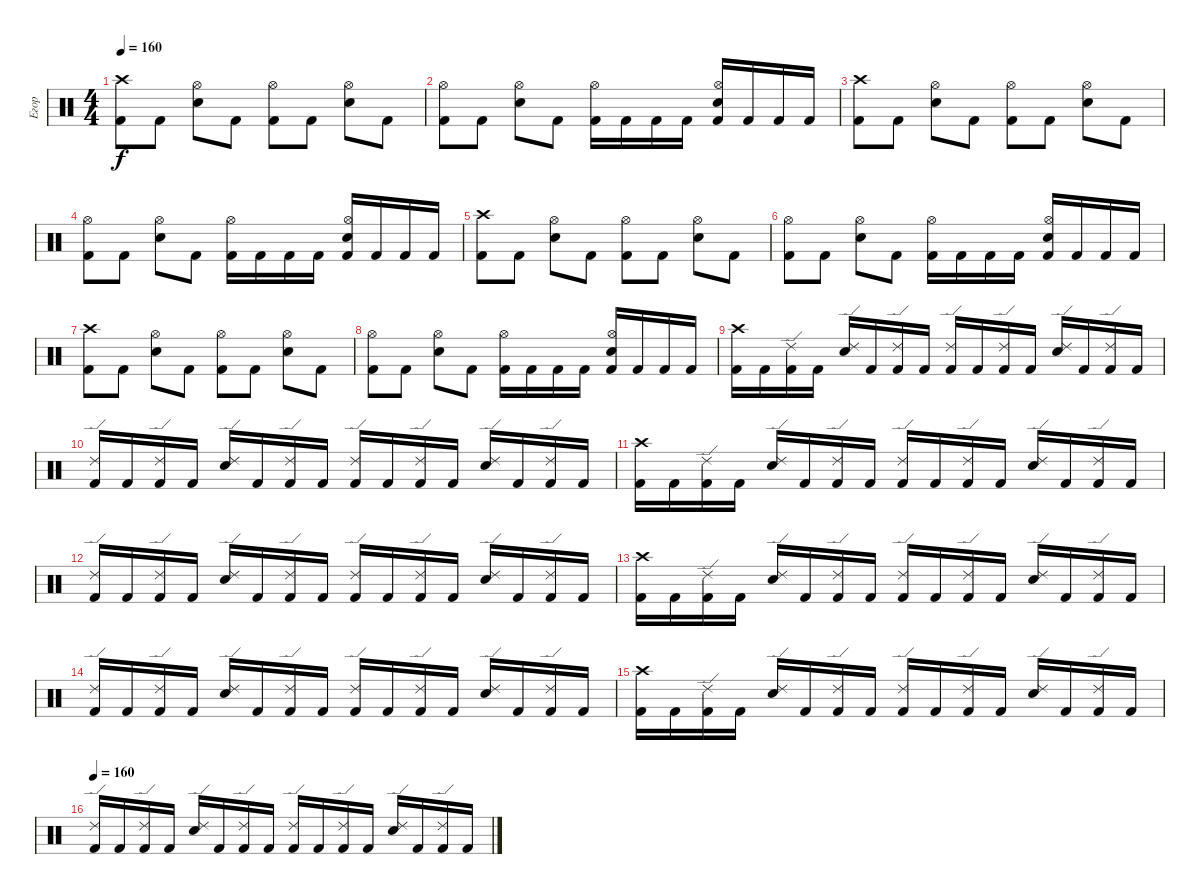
\track ("Егор" "Егор") {instrument percussion}
\staff {score}
\articulation defaults
\ts (4 4)
\tempo 160
\clef neutral
\ks c
("Crash high (hit)" "Kick (hit) 2").8{dy f} "Kick (hit) 2".8 ("Hi-Hat (open)" "Snare (hit) 2").8 "Kick (hit) 2".8 ("Hi-Hat (open)" "Kick (hit) 2").8 "Kick (hit) 2".8 ("Hi-Hat (open)" "Snare (hit) 2").8 "Kick (hit) 2".8 |
("Hi-Hat (open)" "Kick (hit) 2").8 "Kick (hit) 2".8 ("Hi-Hat (open)" "Snare (hit) 2").8 "Kick (hit) 2".8 ("Hi-Hat (open)" "Kick (hit) 2").16 "Kick (hit) 2".16 "Kick (hit) 2".16 "Kick (hit) 2".16 ("Hi-Hat (open)" "Snare (hit) 2" "Kick (hit) 2").16 "Kick (hit) 2".16 "Kick (hit) 2".16 "Kick (hit) 2".16 |
("Crash high (hit)" "Kick (hit) 2").8 "Kick (hit) 2".8 ("Hi-Hat (open)" "Snare (hit) 2").8 "Kick (hit) 2".8 ("Hi-Hat (open)" "Kick (hit) 2").8 "Kick (hit) 2".8 ("Hi-Hat (open)" "Snare (hit) 2").8 "Kick (hit) 2".8 |
("Hi-Hat (open)" "Kick (hit) 2").8 "Kick (hit) 2".8 ("Hi-Hat (open)" "Snare (hit) 2").8 "Kick (hit) 2".8 ("Hi-Hat (open)" "Kick (hit) 2").16 "Kick (hit) 2".16 "Kick (hit) 2".16 "Kick (hit) 2".16 ("Hi-Hat (open)" "Snare (hit) 2" "Kick (hit) 2").16 "Kick (hit) 2".16 "Kick (hit) 2".16 "Kick (hit) 2".16 |
("Crash high (hit)" "Kick (hit) 2").8 "Kick (hit) 2".8 ("Hi-Hat (open)" "Snare (hit) 2").8 "Kick (hit) 2".8 ("Hi-Hat (open)" "Kick (hit) 2").8 "Kick (hit) 2".8 ("Hi-Hat (open)" "Snare (hit) 2").8 "Kick (hit) 2".8 |
("Hi-Hat (open)" "Kick (hit) 2").8 "Kick (hit) 2".8 ("Hi-Hat (open)" "Snare (hit) 2").8 "Kick (hit) 2".8 ("Hi-Hat (open)" "Kick (hit) 2").16 "Kick (hit) 2".16 "Kick (hit) 2".16 "Kick (hit) 2".16 ("Hi-Hat (open)" "Snare (hit) 2" "Kick (hit) 2").16 "Kick (hit) 2".16 "Kick (hit) 2".16 "Kick (hit) 2".16 |
("Crash high (hit)" "Kick (hit) 2").8 "Kick (hit) 2".8 ("Hi-Hat (open)" "Snare (hit) 2").8 "Kick (hit) 2".8 ("Hi-Hat (open)" "Kick (hit) 2").8 "Kick (hit) 2".8 ("Hi-Hat (open)" "Snare (hit) 2").8 "Kick (hit) 2".8 |
("Hi-Hat (open)" "Kick (hit) 2").8 "Kick (hit) 2".8 ("Hi-Hat (open)" "Snare (hit) 2").8 "Kick (hit) 2".8 ("Hi-Hat (open)" "Kick (hit) 2").16 "Kick (hit) 2".16 "Kick (hit) 2".16 "Kick (hit) 2".16 ("Hi-Hat (open)" "Snare (hit) 2" "Kick (hit) 2").16 "Kick (hit) 2".16 "Kick (hit) 2".16 "Kick (hit) 2".16 |
("Crash high (hit)" "Kick (hit) 2").16 "Kick (hit) 2".16 ("Ride (edge) 2" "Kick (hit) 2").16 "Kick (hit) 2".16 ("Ride (edge) 2" "Snare (hit) 2").16 "Kick (hit) 2".16 ("Ride (edge) 2" "Kick (hit) 2").16 "Kick (hit) 2".16 ("Ride (edge) 2" "Kick (hit) 2").16 "Kick (hit) 2".16 ("Ride (edge) 2" "Kick (hit) 2").16 "Kick (hit) 2".16 ("Ride (edge) 2" "Snare (hit) 2").16 "Kick (hit) 2".16 ("Ride (edge) 2" "Kick (hit) 2").16 "Kick (hit) 2".16 |
("Ride (edge) 2" "Kick (hit) 2").16 "Kick (hit) 2".16 ("Ride (edge) 2" "Kick (hit) 2").16 "Kick (hit) 2".16 ("Ride (edge) 2" "Snare (hit) 2").16 "Kick (hit) 2".16 ("Ride (edge) 2" "Kick (hit) 2").16 "Kick (hit) 2".16 ("Ride (edge) 2" "Kick (hit) 2").16 "Kick (hit) 2".16 ("Ride (edge) 2" "Kick (hit) 2").16 "Kick (hit) 2".16 ("Ride (edge) 2" "Snare (hit) 2").16 "Kick (hit) 2".16 ("Ride (edge) 2" "Kick (hit) 2").16 "Kick (hit) 2".16 |
("Crash high (hit)" "Kick (hit) 2").16 "Kick (hit) 2".16 ("Ride (edge) 2" "Kick (hit) 2").16 "Kick (hit) 2".16 ("Ride (edge) 2" "Snare (hit) 2").16 "Kick (hit) 2".16 ("Ride (edge) 2" "Kick (hit) 2").16 "Kick (hit) 2".16 ("Ride (edge) 2" "Kick (hit) 2").16 "Kick (hit) 2".16 ("Ride (edge) 2" "Kick (hit) 2").16 "Kick (hit) 2".16 ("Ride (edge) 2" "Snare (hit) 2").16 "Kick (hit) 2".16 ("Ride (edge) 2" "Kick (hit) 2").16 "Kick (hit) 2".16 |
("Ride (edge) 2" "Kick (hit) 2").16 "Kick (hit) 2".16 ("Ride (edge) 2" "Kick (hit) 2").16 "Kick (hit) 2".16 ("Ride (edge) 2" "Snare (hit) 2").16 "Kick (hit) 2".16 ("Ride (edge) 2" "Kick (hit) 2").16 "Kick (hit) 2".16 ("Ride (edge) 2" "Kick (hit) 2").16 "Kick (hit) 2".16 ("Ride (edge) 2" "Kick (hit) 2").16 "Kick (hit) 2".16 ("Ride (edge) 2" "Snare (hit) 2").16 "Kick (hit) 2".16 ("Ride (edge) 2" "Kick (hit) 2").16 "Kick (hit) 2".16 |
("Crash high (hit)" "Kick (hit) 2").16 "Kick (hit) 2".16 ("Ride (edge) 2" "Kick (hit) 2").16 "Kick (hit) 2".16 ("Ride (edge) 2" "Snare (hit) 2").16 "Kick (hit) 2".16 ("Ride (edge) 2" "Kick (hit) 2").16 "Kick (hit) 2".16 ("Ride (edge) 2" "Kick (hit) 2").16 "Kick (hit) 2".16 ("Ride (edge) 2" "Kick (hit) 2").16 "Kick (hit) 2".16 ("Ride (edge) 2" "Snare (hit) 2").16 "Kick (hit) 2".16 ("Ride (edge) 2" "Kick (hit) 2").16 "Kick (hit) 2".16 |
("Ride (edge) 2" "Kick (hit) 2").16 "Kick (hit) 2".16 ("Ride (edge) 2" "Kick (hit) 2").16 "Kick (hit) 2".16 ("Ride (edge) 2" "Snare (hit) 2").16 "Kick (hit) 2".16 ("Ride (edge) 2" "Kick (hit) 2").16 "Kick (hit) 2".16 ("Ride (edge) 2" "Kick (hit) 2").16 "Kick (hit) 2".16 ("Ride (edge) 2" "Kick (hit) 2").16 "Kick (hit) 2".16 ("Ride (edge) 2" "Snare (hit) 2").16 "Kick (hit) 2".16 ("Ride (edge) 2" "Kick (hit) 2").16 "Kick (hit) 2".16 |
("Crash high (hit)" "Kick (hit) 2").16 "Kick (hit) 2".16 ("Ride (edge) 2" "Kick (hit) 2").16 "Kick (hit) 2".16 ("Ride (edge) 2" "Snare (hit) 2").16 "Kick (hit) 2".16 ("Ride (edge) 2" "Kick (hit) 2").16 "Kick (hit) 2".16 ("Ride (edge) 2" "Kick (hit) 2").16 "Kick (hit) 2".16 ("Ride (edge) 2" "Kick (hit) 2").16 "Kick (hit) 2".16 ("Ride (edge) 2" "Snare (hit) 2").16 "Kick (hit) 2".16 ("Ride (edge) 2" "Kick (hit) 2").16 "Kick (hit) 2".16 |
\tempo 160
("Ride (edge) 2" "Kick (hit) 2").16 "Kick (hit) 2".16 ("Ride (edge) 2" "Kick (hit) 2").16 "Kick (hit) 2".16 ("Ride (edge) 2" "Snare (hit) 2").16 "Kick (hit) 2".16 ("Ride (edge) 2" "Kick (hit) 2").16 "Kick (hit) 2".16 ("Ride (edge) 2" "Kick (hit) 2").16 "Kick (hit) 2".16 ("Ride (edge) 2" "Kick (hit) 2").16 "Kick (hit) 2".16 ("Ride (edge) 2" "Snare (hit) 2").16 "Kick (hit) 2".16 ("Ride (edge) 2" "Kick (hit) 2").16 "Kick (hit) 2".16
